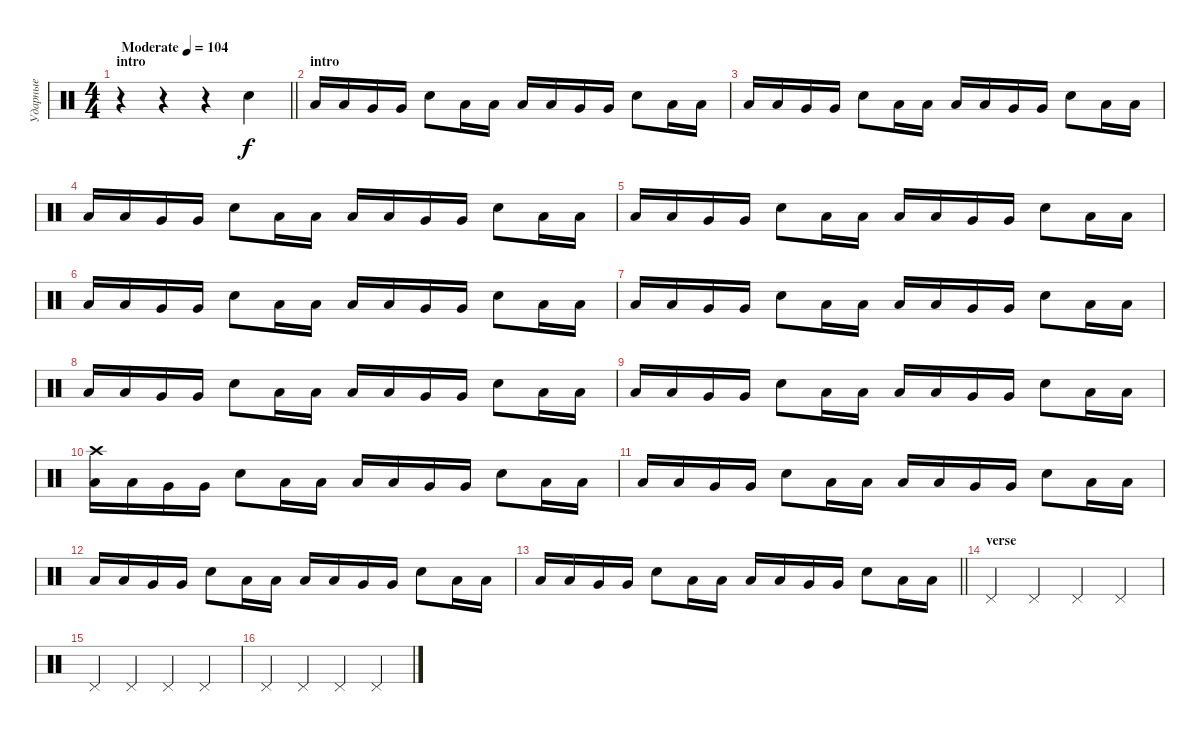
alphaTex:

\track ("Ударные" "Ударные") {instrument percussion}
\staff {score}
\articulation defaults
\ts (4 4)
\section ("" "intro")
\tempo (104 "Moderate")
\clef neutral
\barLineRight lightlight
\ks c
r.4{dy f} r.4 r.4 "Electric Snare (hit)".4 |
\section ("" "intro")
"Low Tom (hit)".16 "Low Tom (hit)".16 "Very Low Tom (hit)".16 "Very Low Tom (hit)".16 "Electric Snare (hit)".8 "Low Floor Tom (hit)".16 "Low Floor Tom (hit)".16 "Low Tom (hit)".16 "Low Tom (hit)".16 "Very Low Tom (hit)".16 "Very Low Tom (hit)".16 "Electric Snare (hit)".8 "Low Floor Tom (hit)".16 "Low Floor Tom (hit)".16 |
"Low Tom (hit)".16 "Low Tom (hit)".16 "Very Low Tom (hit)".16 "Very Low Tom (hit)".16 "Electric Snare (hit)".8 "Low Floor Tom (hit)".16 "Low Floor Tom (hit)".16 "Low Tom (hit)".16 "Low Tom (hit)".16 "Very Low Tom (hit)".16 "Very Low Tom (hit)".16 "Electric Snare (hit)".8 "Low Floor Tom (hit)".16 "Low Floor Tom (hit)".16 |
"Low Tom (hit)".16 "Low Tom (hit)".16 "Very Low Tom (hit)".16 "Very Low Tom (hit)".16 "Electric Snare (hit)".8 "Low Floor Tom (hit)".16 "Low Floor Tom (hit)".16 "Low Tom (hit)".16 "Low Tom (hit)".16 "Very Low Tom (hit)".16 "Very Low Tom (hit)".16 "Electric Snare (hit)".8 "Low Floor Tom (hit)".16 "Low Floor Tom (hit)".16 |
"Low Tom (hit)".16 "Low Tom (hit)".16 "Very Low Tom (hit)".16 "Very Low Tom (hit)".16 "Electric Snare (hit)".8 "Low Floor Tom (hit)".16 "Low Floor Tom (hit)".16 "Low Tom (hit)".16 "Low Tom (hit)".16 "Very Low Tom (hit)".16 "Very Low Tom (hit)".16 "Electric Snare (hit)".8 "Low Floor Tom (hit)".16 "Low Floor Tom (hit)".16 |
"Low Tom (hit)".16 "Low Tom (hit)".16 "Very Low Tom (hit)".16 "Very Low Tom (hit)".16 "Electric Snare (hit)".8 "Low Floor Tom (hit)".16 "Low Floor Tom (hit)".16 "Low Tom (hit)".16 "Low Tom (hit)".16 "Very Low Tom (hit)".16 "Very Low Tom (hit)".16 "Electric Snare (hit)".8 "Low Floor Tom (hit)".16 "Low Floor Tom (hit)".16 |
"Low Tom (hit)".16 "Low Tom (hit)".16 "Very Low Tom (hit)".16 "Very Low Tom (hit)".16 "Electric Snare (hit)".8 "Low Floor Tom (hit)".16 "Low Floor Tom (hit)".16 "Low Tom (hit)".16 "Low Tom (hit)".16 "Very Low Tom (hit)".16 "Very Low Tom (hit)".16 "Electric Snare (hit)".8 "Low Floor Tom (hit)".16 "Low Floor Tom (hit)".16 |
"Low Tom (hit)".16 "Low Tom (hit)".16 "Very Low Tom (hit)".16 "Very Low Tom (hit)".16 "Electric Snare (hit)".8 "Low Floor Tom (hit)".16 "Low Floor Tom (hit)".16 "Low Tom (hit)".16 "Low Tom (hit)".16 "Very Low Tom (hit)".16 "Very Low Tom (hit)".16 "Electric Snare (hit)".8 "Low Floor Tom (hit)".16 "Low Floor Tom (hit)".16 |
"Low Tom (hit)".16 "Low Tom (hit)".16 "Very Low Tom (hit)".16 "Very Low Tom (hit)".16 "Electric Snare (hit)".8 "Low Floor Tom (hit)".16 "Low Floor Tom (hit)".16 "Low Tom (hit)".16 "Low Tom (hit)".16 "Very Low Tom (hit)".16 "Very Low Tom (hit)".16 "Electric Snare (hit)".8 "Low Floor Tom (hit)".16 "Low Floor Tom (hit)".16 |
("Crash high (hit)" "Low Tom (hit)").16 "Low Tom (hit)".16 "Very Low Tom (hit)".16 "Very Low Tom (hit)".16 "Electric Snare (hit)".8 "Low Floor Tom (hit)".16 "Low Floor Tom (hit)".16 "Low Tom (hit)".16 "Low Tom (hit)".16 "Very Low Tom (hit)".16 "Very Low Tom (hit)".16 "Electric Snare (hit)".8 "Low Floor Tom (hit)".16 "Low Floor Tom (hit)".16 |
"Low Tom (hit)".16 "Low Tom (hit)".16 "Very Low Tom (hit)".16 "Very Low Tom (hit)".16 "Electric Snare (hit)".8 "Low Floor Tom (hit)".16 "Low Floor Tom (hit)".16 "Low Tom (hit)".16 "Low Tom (hit)".16 "Very Low Tom (hit)".16 "Very Low Tom (hit)".16 "Electric Snare (hit)".8 "Low Floor Tom (hit)".16 "Low Floor Tom (hit)".16 |
"Low Tom (hit)".16 "Low Tom (hit)".16 "Very Low Tom (hit)".16 "Very Low Tom (hit)".16 "Electric Snare (hit)".8 "Low Floor Tom (hit)".16 "Low Floor Tom (hit)".16 "Low Tom (hit)".16 "Low Tom (hit)".16 "Very Low Tom (hit)".16 "Very Low Tom (hit)".16 "Electric Snare (hit)".8 "Low Floor Tom (hit)".16 "Low Floor Tom (hit)".16 |
\barLineRight lightlight "Low Tom (hit)".16 "Low Tom (hit)".16 "Very Low Tom (hit)".16 "Very Low Tom (hit)".16 "Electric Snare (hit)".8 "Low Floor Tom (hit)".16 "Low Floor Tom (hit)".16 "Low Tom (hit)".16 "Low Tom (hit)".16 "Very Low Tom (hit)".16 "Very Low Tom (hit)".16 "Electric Snare (hit)".8 "Low Floor Tom (hit)".16 "Low Floor Tom (hit)".16
|
\section ("" "verse")
"Pedal Hi-Hat (hit)".4 "Pedal Hi-Hat (hit)".4 "Pedal Hi-Hat (hit)".4 "Pedal Hi-Hat (hit)".4 |
"Pedal Hi-Hat (hit)".4 "Pedal Hi-Hat (hit)".4 "Pedal Hi-Hat (hit)".4 "Pedal Hi-Hat (hit)".4 |
"Pedal Hi-Hat (hit)".4 "Pedal Hi-Hat (hit)".4 "Pedal Hi-Hat (hit)".4 "Pedal Hi-Hat (hit)".4
